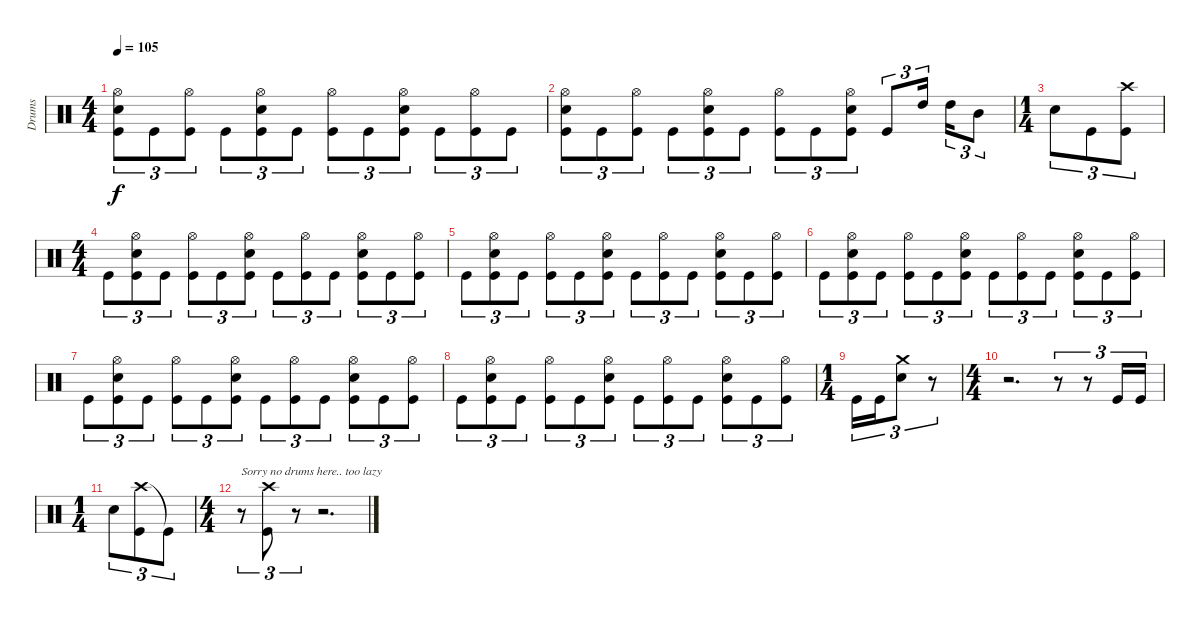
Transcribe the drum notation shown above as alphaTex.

\track ("Drums" "Drums") {instrument percussion}
\staff {score}
\articulation defaults
\ts (4 4)
\tempo 105
\clef neutral
\ks c
("Hi-Hat (open)" "Snare (hit) 2" "Kick (hit)").8{tu (3 2) dy f} "Kick (hit)".8{tu (3 2)} ("Hi-Hat (open)" "Kick (hit)").8{tu (3 2)} "Kick (hit)".8{tu (3 2)} ("Hi-Hat (open)" "Snare (hit) 2" "Kick (hit)").8{tu (3 2)} "Kick (hit)".8{tu (3 2)} ("Hi-Hat (open)" "Kick (hit)").8{tu (3 2)} "Kick (hit)".8{tu (3 2)} ("Hi-Hat (open)" "Snare (hit) 2" "Kick (hit)").8{tu (3 2)} "Kick (hit)".8{tu (3 2)} ("Hi-Hat (open)" "Kick (hit)").8{tu (3 2)} "Kick (hit)".8{tu (3 2)} |
("Hi-Hat (open)" "Snare (hit) 2" "Kick (hit)").8{tu (3 2)} "Kick (hit)".8{tu (3 2)} ("Hi-Hat (open)" "Kick (hit)").8{tu (3 2)} "Kick (hit)".8{tu (3 2)} ("Hi-Hat (open)" "Snare (hit) 2" "Kick (hit)").8{tu (3 2)} "Kick (hit)".8{tu (3 2)} ("Hi-Hat (open)" "Kick (hit)").8{tu (3 2)} "Kick (hit)".8{tu (3 2)} ("Hi-Hat (open)" "Snare (hit) 2" "Kick (hit)").8{tu (3 2)} "Kick (hit)".8{tu (3 2)} "High Tom (hit)".16{tu (3 2)} "High Tom (hit)".16{tu (3 2)} "Mid Tom (hit)".8{tu (3 2)} |
\ts (1 4)
"Snare (hit) 2".8{tu (3 2)} "Kick (hit)".8{tu (3 2)} ("Crash high (hit)" "Kick (hit)").8{tu (3 2)} |
\ts (4 4)
"Kick (hit)".8{tu (3 2)} ("Hi-Hat (open)" "Snare (hit) 2" "Kick (hit)").8{tu (3 2)} "Kick (hit)".8{tu (3 2)} ("Hi-Hat (open)" "Kick (hit)").8{tu (3 2)} "Kick (hit)".8{tu (3 2)} ("Hi-Hat (open)" "Snare (hit) 2" "Kick (hit)").8{tu (3 2)} "Kick (hit)".8{tu (3 2)} ("Hi-Hat (open)" "Kick (hit)").8{tu (3 2)} "Kick (hit)".8{tu (3 2)} ("Hi-Hat (open)" "Snare (hit) 2" "Kick (hit)").8{tu (3 2)} "Kick (hit)".8{tu (3 2)} ("Hi-Hat (open)" "Kick (hit)").8{tu (3 2)} |
"Kick (hit)".8{tu (3 2)} ("Hi-Hat (open)" "Snare (hit) 2" "Kick (hit)").8{tu (3 2)} "Kick (hit)".8{tu (3 2)} ("Hi-Hat (open)" "Kick (hit)").8{tu (3 2)} "Kick (hit)".8{tu (3 2)} ("Hi-Hat (open)" "Snare (hit) 2" "Kick (hit)").8{tu (3 2)} "Kick (hit)".8{tu (3 2)} ("Hi-Hat (open)" "Kick (hit)").8{tu (3 2)} "Kick (hit)".8{tu (3 2)} ("Hi-Hat (open)" "Snare (hit) 2" "Kick (hit)").8{tu (3 2)} "Kick (hit)".8{tu (3 2)} ("Hi-Hat (open)" "Kick (hit)").8{tu (3 2)} |
"Kick (hit)".8{tu (3 2)} ("Hi-Hat (open)" "Snare (hit) 2" "Kick (hit)").8{tu (3 2)} "Kick (hit)".8{tu (3 2)} ("Hi-Hat (open)" "Kick (hit)").8{tu (3 2)} "Kick (hit)".8{tu (3 2)} ("Hi-Hat (open)" "Snare (hit) 2" "Kick (hit)").8{tu (3 2)} "Kick (hit)".8{tu (3 2)} ("Hi-Hat (open)" "Kick (hit)").8{tu (3 2)} "Kick (hit)".8{tu (3 2)} ("Hi-Hat (open)" "Snare (hit) 2" "Kick (hit)").8{tu (3 2)} "Kick (hit)".8{tu (3 2)} ("Hi-Hat (open)" "Kick (hit)").8{tu (3 2)} |
"Kick (hit)".8{tu (3 2)} ("Hi-Hat (open)" "Snare (hit) 2" "Kick (hit)").8{tu (3 2)} "Kick (hit)".8{tu (3 2)} ("Hi-Hat (open)" "Kick (hit)").8{tu (3 2)} "Kick (hit)".8{tu (3 2)} ("Hi-Hat (open)" "Snare (hit) 2" "Kick (hit)").8{tu (3 2)} "Kick (hit)".8{tu (3 2)} ("Hi-Hat (open)" "Kick (hit)").8{tu (3 2)} "Kick (hit)".8{tu (3 2)} ("Hi-Hat (open)" "Snare (hit) 2" "Kick (hit)").8{tu (3 2)} "Kick (hit)".8{tu (3 2)} ("Hi-Hat (open)" "Kick (hit)").8{tu (3 2)} |
"Kick (hit)".8{tu (3 2)} ("Hi-Hat (open)" "Snare (hit) 2" "Kick (hit)").8{tu (3 2)} "Kick (hit)".8{tu (3 2)} ("Hi-Hat (open)" "Kick (hit)").8{tu (3 2)} "Kick (hit)".8{tu (3 2)} ("Hi-Hat (open)" "Snare (hit) 2" "Kick (hit)").8{tu (3 2)} "Kick (hit)".8{tu (3 2)} ("Hi-Hat (open)" "Kick (hit)").8{tu (3 2)} "Kick (hit)".8{tu (3 2)} ("Hi-Hat (open)" "Snare (hit) 2" "Kick (hit)").8{tu (3 2)} "Kick (hit)".8{tu (3 2)} ("Hi-Hat (open)" "Kick (hit)").8{tu (3 2)} |
\ts (1 4)
"Kick (hit)".16{tu (3 2)} "Kick (hit)".16{tu (3 2)} ("Crash medium (hit)" "Snare (hit) 2").8{tu (3 2)} r.8{tu (3 2)} |
\ts (4 4)
r.2{d} r.8{tu (3 2)} r.8{tu (3 2)} "Kick (hit)".16{tu (3 2)} "Kick (hit)".16{tu (3 2)} |
\ts (1 4)
"Snare (hit) 2".8{tu (3 2)} ("Crash high (hit)" "Kick (hit)").8{tu (3 2)} "Kick (hit)"{t}.8{tu (3 2)} |
\ts (4 4)
r.8{tu (3 2) txt "Sorry no drums here.. too lazy"} ("Crash high (hit)" "Kick (hit)").8{tu (3 2)} r.8{tu (3 2)} r.2{d}
